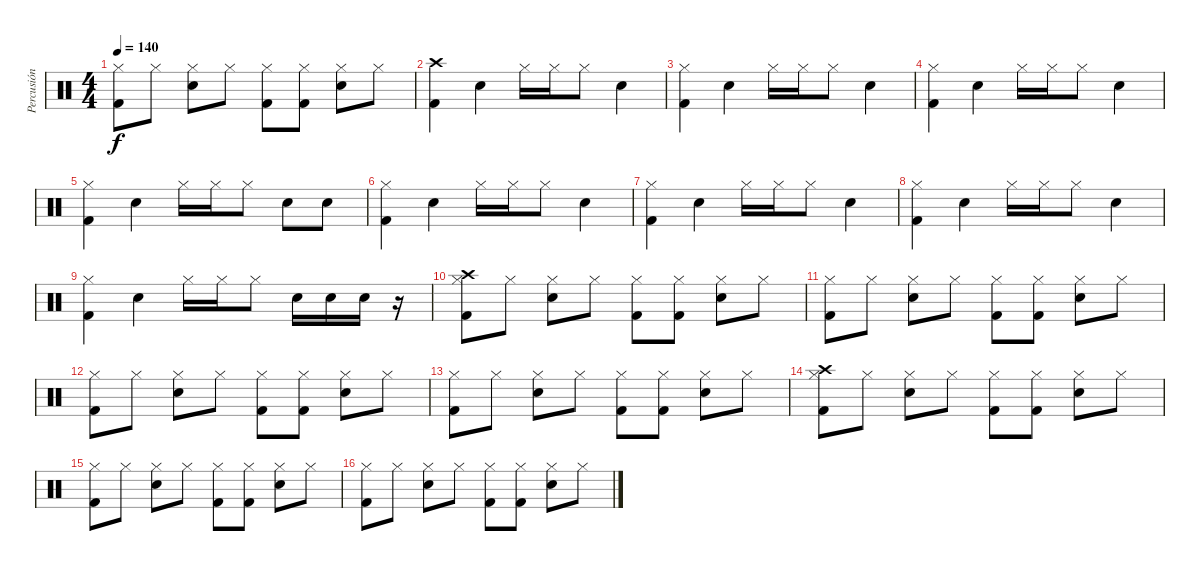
\track ("Percusión" "Percusión") {instrument percussion}
\staff {score}
\articulation defaults
\ts (4 4)
\tempo 140
\clef neutral
\ks c
("Hi-Hat (closed)" "Kick (hit) 2").8{dy f} "Hi-Hat (closed)".8 ("Hi-Hat (closed)" "Snare (hit) 2").8 "Hi-Hat (closed)".8 ("Hi-Hat (closed)" "Kick (hit) 2").8 ("Hi-Hat (closed)" "Kick (hit) 2").8 ("Hi-Hat (closed)" "Snare (hit) 2").8 "Hi-Hat (closed)".8 |
("Crash high (hit)" "Kick (hit) 2").4 "Snare (hit) 2".4 "Hi-Hat (closed)".16 "Hi-Hat (closed)".16 "Hi-Hat (closed)".8 "Snare (hit) 2".4 |
("Hi-Hat (closed)" "Kick (hit) 2").4 "Snare (hit) 2".4 "Hi-Hat (closed)".16 "Hi-Hat (closed)".16 "Hi-Hat (closed)".8 "Snare (hit) 2".4 |
("Hi-Hat (closed)" "Kick (hit) 2").4 "Snare (hit) 2".4 "Hi-Hat (closed)".16 "Hi-Hat (closed)".16 "Hi-Hat (closed)".8 "Snare (hit) 2".4 |
("Hi-Hat (closed)" "Kick (hit) 2").4 "Snare (hit) 2".4 "Hi-Hat (closed)".16 "Hi-Hat (closed)".16 "Hi-Hat (closed)".8 "Snare (hit) 2".8 "Snare (hit) 2".8 |
("Hi-Hat (closed)" "Kick (hit) 2").4 "Snare (hit) 2".4 "Hi-Hat (closed)".16 "Hi-Hat (closed)".16 "Hi-Hat (closed)".8 "Snare (hit) 2".4 |
("Hi-Hat (closed)" "Kick (hit) 2").4 "Snare (hit) 2".4 "Hi-Hat (closed)".16 "Hi-Hat (closed)".16 "Hi-Hat (closed)".8 "Snare (hit) 2".4 |
("Hi-Hat (closed)" "Kick (hit) 2").4 "Snare (hit) 2".4 "Hi-Hat (closed)".16 "Hi-Hat (closed)".16 "Hi-Hat (closed)".8 "Snare (hit) 2".4 |
("Hi-Hat (closed)" "Kick (hit) 2").4 "Snare (hit) 2".4 "Hi-Hat (closed)".16 "Hi-Hat (closed)".16 "Hi-Hat (closed)".8 "Snare (hit) 2".16 "Snare (hit) 2".16 "Snare (hit) 2".16 r.16 |
("Crash high (hit)" "Hi-Hat (closed)" "Kick (hit) 2").8 "Hi-Hat (closed)".8 ("Hi-Hat (closed)" "Snare (hit) 2").8 "Hi-Hat (closed)".8 ("Hi-Hat (closed)" "Kick (hit) 2").8 ("Hi-Hat (closed)" "Kick (hit) 2").8 ("Hi-Hat (closed)" "Snare (hit) 2").8 "Hi-Hat (closed)".8 |
("Hi-Hat (closed)" "Kick (hit) 2").8 "Hi-Hat (closed)".8 ("Hi-Hat (closed)" "Snare (hit) 2").8 "Hi-Hat (closed)".8 ("Hi-Hat (closed)" "Kick (hit) 2").8 ("Hi-Hat (closed)" "Kick (hit) 2").8 ("Hi-Hat (closed)" "Snare (hit) 2").8 "Hi-Hat (closed)".8 |
("Hi-Hat (closed)" "Kick (hit) 2").8 "Hi-Hat (closed)".8 ("Hi-Hat (closed)" "Snare (hit) 2").8 "Hi-Hat (closed)".8 ("Hi-Hat (closed)" "Kick (hit) 2").8 ("Hi-Hat (closed)" "Kick (hit) 2").8 ("Hi-Hat (closed)" "Snare (hit) 2").8 "Hi-Hat (closed)".8 |
("Hi-Hat (closed)" "Kick (hit) 2").8 "Hi-Hat (closed)".8 ("Hi-Hat (closed)" "Snare (hit) 2").8 "Hi-Hat (closed)".8 ("Hi-Hat (closed)" "Kick (hit) 2").8 ("Hi-Hat (closed)" "Kick (hit) 2").8 ("Hi-Hat (closed)" "Snare (hit) 2").8 "Hi-Hat (closed)".8 |
("Crash high (hit)" "Hi-Hat (closed)" "Kick (hit) 2").8 "Hi-Hat (closed)".8 ("Hi-Hat (closed)" "Snare (hit) 2").8 "Hi-Hat (closed)".8 ("Hi-Hat (closed)" "Kick (hit) 2").8 ("Hi-Hat (closed)" "Kick (hit) 2").8 ("Hi-Hat (closed)" "Snare (hit) 2").8 "Hi-Hat (closed)".8 |
("Hi-Hat (closed)" "Kick (hit) 2").8 "Hi-Hat (closed)".8 ("Hi-Hat (closed)" "Snare (hit) 2").8 "Hi-Hat (closed)".8 ("Hi-Hat (closed)" "Kick (hit) 2").8 ("Hi-Hat (closed)" "Kick (hit) 2").8 ("Hi-Hat (closed)" "Snare (hit) 2").8 "Hi-Hat (closed)".8 |
("Hi-Hat (closed)" "Kick (hit) 2").8 "Hi-Hat (closed)".8 ("Hi-Hat (closed)" "Snare (hit) 2").8 "Hi-Hat (closed)".8 ("Hi-Hat (closed)" "Kick (hit) 2").8 ("Hi-Hat (closed)" "Kick (hit) 2").8 ("Hi-Hat (closed)" "Snare (hit) 2").8 "Hi-Hat (closed)".8
